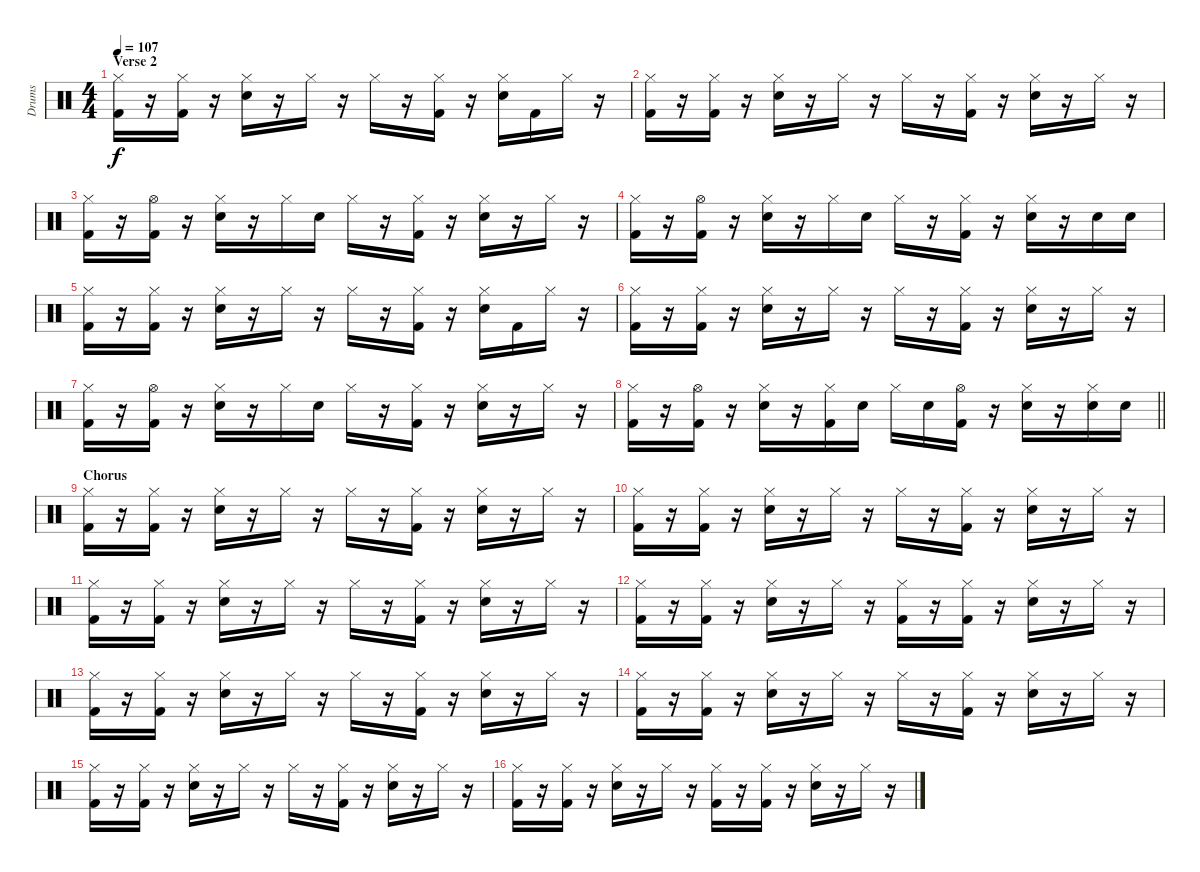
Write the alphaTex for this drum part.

\track ("Drums" "Drums") {instrument percussion}
\staff {score}
\articulation defaults
\ts (4 4)
\section ("" "Verse 2")
\tempo 107
\clef neutral
\ks c
("Hi-Hat (closed)" "Kick (hit) 2").16{dy f} r.16 ("Hi-Hat (closed)" "Kick (hit) 2").16 r.16 ("Hi-Hat (closed)" "Electric Snare (hit)").16 r.16 "Hi-Hat (closed)".16 r.16 "Hi-Hat (closed)".16 r.16 ("Hi-Hat (closed)" "Kick (hit) 2").16 r.16 ("Hi-Hat (closed)" "Electric Snare (hit)").16 "Kick (hit) 2".16 "Hi-Hat (closed)".16 r.16 |
("Hi-Hat (closed)" "Kick (hit) 2").16 r.16 ("Hi-Hat (closed)" "Kick (hit) 2").16 r.16 ("Hi-Hat (closed)" "Electric Snare (hit)").16 r.16 "Hi-Hat (closed)".16 r.16 "Hi-Hat (closed)".16 r.16 ("Hi-Hat (closed)" "Kick (hit) 2").16 r.16 ("Hi-Hat (closed)" "Electric Snare (hit)").16 r.16 "Hi-Hat (closed)".16 r.16 |
("Hi-Hat (closed)" "Kick (hit) 2").16 r.16 ("Hi-Hat (open)" "Kick (hit) 2").16 r.16 ("Hi-Hat (closed)" "Electric Snare (hit)").16 r.16 "Hi-Hat (closed)".16 "Electric Snare (hit)".16 "Hi-Hat (closed)".16 r.16 ("Hi-Hat (closed)" "Kick (hit) 2").16 r.16 ("Hi-Hat (closed)" "Electric Snare (hit)").16 r.16 "Hi-Hat (closed)".16 r.16 |
("Hi-Hat (closed)" "Kick (hit) 2").16 r.16 ("Hi-Hat (open)" "Kick (hit) 2").16 r.16 ("Hi-Hat (closed)" "Electric Snare (hit)").16 r.16 "Hi-Hat (closed)".16 "Electric Snare (hit)".16 "Hi-Hat (closed)".16 r.16 ("Hi-Hat (closed)" "Kick (hit) 2").16 r.16 ("Hi-Hat (closed)" "Electric Snare (hit)").16 r.16 "Electric Snare (hit)".16 "Electric Snare (hit)".16 |
("Hi-Hat (closed)" "Kick (hit) 2").16 r.16 ("Hi-Hat (closed)" "Kick (hit) 2").16 r.16 ("Hi-Hat (closed)" "Electric Snare (hit)").16 r.16 "Hi-Hat (closed)".16 r.16 "Hi-Hat (closed)".16 r.16 ("Hi-Hat (closed)" "Kick (hit) 2").16 r.16 ("Hi-Hat (closed)" "Electric Snare (hit)").16 "Kick (hit) 2".16 "Hi-Hat (closed)".16 r.16 |
("Hi-Hat (closed)" "Kick (hit) 2").16 r.16 ("Hi-Hat (closed)" "Kick (hit) 2").16 r.16 ("Hi-Hat (closed)" "Electric Snare (hit)").16 r.16 "Hi-Hat (closed)".16 r.16 "Hi-Hat (closed)".16 r.16 ("Hi-Hat (closed)" "Kick (hit) 2").16 r.16 ("Hi-Hat (closed)" "Electric Snare (hit)").16 r.16 "Hi-Hat (closed)".16 r.16 |
("Hi-Hat (closed)" "Kick (hit) 2").16 r.16 ("Hi-Hat (open)" "Kick (hit) 2").16 r.16 ("Hi-Hat (closed)" "Electric Snare (hit)").16 r.16 "Hi-Hat (closed)".16 "Electric Snare (hit)".16 "Hi-Hat (closed)".16 r.16 ("Hi-Hat (closed)" "Kick (hit) 2").16 r.16 ("Hi-Hat (closed)" "Electric Snare (hit)").16 r.16 "Hi-Hat (closed)".16 r.16 |
\barLineRight lightlight
("Hi-Hat (closed)" "Kick (hit) 2").16 r.16 ("Hi-Hat (open)" "Kick (hit) 2").16 r.16 ("Hi-Hat (closed)" "Electric Snare (hit)").16 r.16 ("Hi-Hat (closed)" "Kick (hit) 2").16 "Electric Snare (hit)".16 "Hi-Hat (closed)".16 "Electric Snare (hit)".16 ("Hi-Hat (open)" "Kick (hit) 2").16 r.16 ("Hi-Hat (closed)" "Electric Snare (hit)").16 r.16 ("Hi-Hat (closed)" "Electric Snare (hit)").16 "Electric Snare (hit)".16 |
\section ("" "Chorus")
("Hi-Hat (closed)" "Kick (hit) 2").16 r.16 ("Hi-Hat (closed)" "Kick (hit) 2").16 r.16 ("Hi-Hat (closed)" "Electric Snare (hit)").16 r.16 "Hi-Hat (closed)".16 r.16 "Hi-Hat (closed)".16 r.16 ("Hi-Hat (closed)" "Kick (hit) 2").16 r.16 ("Hi-Hat (closed)" "Electric Snare (hit)").16 r.16 "Hi-Hat (closed)".16 r.16 |
("Hi-Hat (closed)" "Kick (hit) 2").16 r.16 ("Hi-Hat (closed)" "Kick (hit) 2").16 r.16 ("Hi-Hat (closed)" "Electric Snare (hit)").16 r.16 "Hi-Hat (closed)".16 r.16 "Hi-Hat (closed)".16 r.16 ("Hi-Hat (closed)" "Kick (hit) 2").16 r.16 ("Hi-Hat (closed)" "Electric Snare (hit)").16 r.16 "Hi-Hat (closed)".16 r.16 |
("Hi-Hat (closed)" "Kick (hit) 2").16 r.16 ("Hi-Hat (closed)" "Kick (hit) 2").16 r.16 ("Hi-Hat (closed)" "Electric Snare (hit)").16 r.16 "Hi-Hat (closed)".16 r.16 "Hi-Hat (closed)".16 r.16 ("Hi-Hat (closed)" "Kick (hit) 2").16 r.16 ("Hi-Hat (closed)" "Electric Snare (hit)").16 r.16 "Hi-Hat (closed)".16 r.16 |
("Hi-Hat (closed)" "Kick (hit) 2").16 r.16 ("Hi-Hat (closed)" "Kick (hit) 2").16 r.16 ("Hi-Hat (closed)" "Electric Snare (hit)").16 r.16 "Hi-Hat (closed)".16 r.16 ("Hi-Hat (closed)" "Kick (hit) 2").16 r.16 ("Hi-Hat (closed)" "Kick (hit) 2").16 r.16 ("Hi-Hat (closed)" "Electric Snare (hit)").16 r.16 "Hi-Hat (closed)".16 r.16 |
("Hi-Hat (closed)" "Kick (hit) 2").16 r.16 ("Hi-Hat (closed)" "Kick (hit) 2").16 r.16 ("Hi-Hat (closed)" "Electric Snare (hit)").16 r.16 "Hi-Hat (closed)".16 r.16 "Hi-Hat (closed)".16 r.16 ("Hi-Hat (closed)" "Kick (hit) 2").16 r.16 ("Hi-Hat (closed)" "Electric Snare (hit)").16 r.16 "Hi-Hat (closed)".16 r.16 |
("Hi-Hat (closed)" "Kick (hit) 2").16 r.16 ("Hi-Hat (closed)" "Kick (hit) 2").16 r.16 ("Hi-Hat (closed)" "Electric Snare (hit)").16 r.16 "Hi-Hat (closed)".16 r.16 "Hi-Hat (closed)".16 r.16 ("Hi-Hat (closed)" "Kick (hit) 2").16 r.16 ("Hi-Hat (closed)" "Electric Snare (hit)").16 r.16 "Hi-Hat (closed)".16 r.16 |
("Hi-Hat (closed)" "Kick (hit) 2").16 r.16 ("Hi-Hat (closed)" "Kick (hit) 2").16 r.16 ("Hi-Hat (closed)" "Electric Snare (hit)").16 r.16 "Hi-Hat (closed)".16 r.16 "Hi-Hat (closed)".16 r.16 ("Hi-Hat (closed)" "Kick (hit) 2").16 r.16 ("Hi-Hat (closed)" "Electric Snare (hit)").16 r.16 "Hi-Hat (closed)".16 r.16 |
("Hi-Hat (closed)" "Kick (hit) 2").16 r.16 ("Hi-Hat (closed)" "Kick (hit) 2").16 r.16 ("Hi-Hat (closed)" "Electric Snare (hit)").16 r.16 "Hi-Hat (closed)".16 r.16 ("Hi-Hat (closed)" "Kick (hit) 2").16 r.16 ("Hi-Hat (closed)" "Kick (hit) 2").16 r.16 ("Hi-Hat (closed)" "Electric Snare (hit)").16 r.16 "Hi-Hat (closed)".16 r.16
